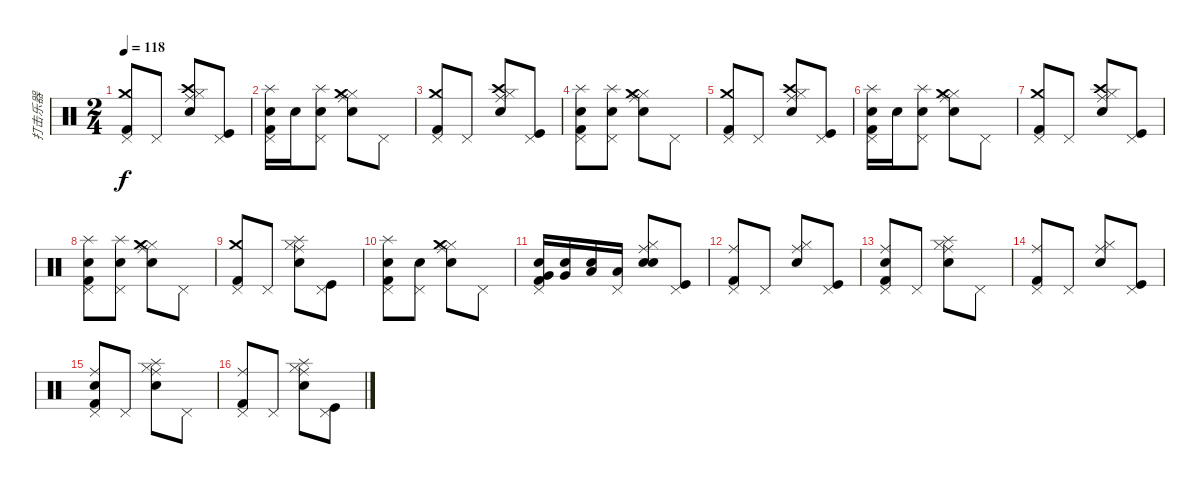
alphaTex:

\track ("打击乐器" "打击乐器") {instrument percussion}
\staff {score}
\articulation defaults
\ts (2 4)
\tempo 118
\clef neutral
\ks c
("Pedal Hi-Hat (hit)" "Crash medium (hit)" "Kick (hit) 2").8{dy f} "Pedal Hi-Hat (hit)".8 ("Ride (middle)" "Hi-Hat (closed)" "Crash high (hit)" "Snare (hit) 2").8 ("Pedal Hi-Hat (hit)" "Kick (hit)").8 |
("Snare (hit) 2" "Pedal Hi-Hat (hit)" "Splash (hit)" "Kick (hit) 2").16 "Snare (hit) 2".16 ("Snare (hit) 2" "Pedal Hi-Hat (hit)" "Splash (hit)").8 ("Ride (middle)" "Hi-Hat (closed)" "Crash medium (hit)" "Snare (hit) 2").8 "Pedal Hi-Hat (hit)".8 |
("Pedal Hi-Hat (hit)" "Crash medium (hit)" "Kick (hit) 2").8 "Pedal Hi-Hat (hit)".8 ("Ride (middle)" "Hi-Hat (closed)" "Crash high (hit)" "Snare (hit) 2").8 ("Pedal Hi-Hat (hit)" "Kick (hit)").8 |
("Snare (hit) 2" "Pedal Hi-Hat (hit)" "Splash (hit)" "Kick (hit) 2").8 ("Snare (hit) 2" "Pedal Hi-Hat (hit)" "Splash (hit)").8 ("Ride (middle)" "Hi-Hat (closed)" "Crash medium (hit)" "Snare (hit) 2").8 "Pedal Hi-Hat (hit)".8 |
("Pedal Hi-Hat (hit)" "Crash medium (hit)" "Kick (hit) 2").8 "Pedal Hi-Hat (hit)".8 ("Ride (middle)" "Hi-Hat (closed)" "Crash high (hit)" "Snare (hit) 2").8 ("Pedal Hi-Hat (hit)" "Kick (hit)").8 |
("Snare (hit) 2" "Pedal Hi-Hat (hit)" "Splash (hit)" "Kick (hit) 2").16 "Snare (hit) 2".16 ("Snare (hit) 2" "Pedal Hi-Hat (hit)" "Splash (hit)").8 ("Ride (middle)" "Hi-Hat (closed)" "Crash medium (hit)" "Snare (hit) 2").8 "Pedal Hi-Hat (hit)".8 |
("Pedal Hi-Hat (hit)" "Crash medium (hit)" "Kick (hit) 2").8 "Pedal Hi-Hat (hit)".8 ("Ride (middle)" "Hi-Hat (closed)" "Crash high (hit)" "Snare (hit) 2").8 ("Pedal Hi-Hat (hit)" "Kick (hit)").8 |
("Snare (hit) 2" "Pedal Hi-Hat (hit)" "Splash (hit)" "Kick (hit) 2").8 ("Snare (hit) 2" "Pedal Hi-Hat (hit)" "Splash (hit)").8 ("Ride (middle)" "Hi-Hat (closed)" "Crash medium (hit)" "Snare (hit) 2").8 "Pedal Hi-Hat (hit)".8 |
("Pedal Hi-Hat (hit)" "Crash medium (hit)" "Kick (hit) 2").8 "Pedal Hi-Hat (hit)".8 ("Ride (middle)" "Hi-Hat (closed)" "Splash (hit)" "Snare (hit) 2").8 ("Pedal Hi-Hat (hit)" "Kick (hit)").8 |
("Snare (hit) 2" "Pedal Hi-Hat (hit)" "Splash (hit)" "Kick (hit) 2").8 ("Snare (hit) 2" "Pedal Hi-Hat (hit)").8 ("Ride (middle)" "Hi-Hat (closed)" "Crash medium (hit)" "Snare (hit) 2").8 "Pedal Hi-Hat (hit)".8 |
("Very Low Tom (hit)" "Pedal Hi-Hat (hit)" "Electric Snare (hit)" "Kick (hit) 2").16 ("Very Low Tom (hit)" "Electric Snare (hit)").16 ("Low Floor Tom (hit)" "Electric Snare (hit)").16 ("Low Floor Tom (hit)" "Pedal Hi-Hat (hit)").16 ("Ride (middle)" "Hi-Hat (closed)" "Electric Snare (hit)" "Snare (hit) 2").8 ("Pedal Hi-Hat (hit)" "Kick (hit)").8 |
("Pedal Hi-Hat (hit)" "Ride (middle)" "Kick (hit) 2").8 "Pedal Hi-Hat (hit)".8 ("Ride (middle)" "Hi-Hat (closed)" "Snare (hit) 2").8 ("Pedal Hi-Hat (hit)" "Kick (hit)").8 |
("Snare (hit) 2" "Pedal Hi-Hat (hit)" "Ride (middle)" "Kick (hit) 2").8 "Pedal Hi-Hat (hit)".8 ("Ride (middle)" "Hi-Hat (closed)" "Splash (hit)" "Snare (hit) 2").8 "Pedal Hi-Hat (hit)".8 |
("Pedal Hi-Hat (hit)" "Ride (middle)" "Kick (hit) 2").8 "Pedal Hi-Hat (hit)".8 ("Ride (middle)" "Hi-Hat (closed)" "Snare (hit) 2").8 ("Pedal Hi-Hat (hit)" "Kick (hit)").8 |
("Snare (hit) 2" "Pedal Hi-Hat (hit)" "Ride (middle)" "Kick (hit) 2").8 "Pedal Hi-Hat (hit)".8 ("Ride (middle)" "Hi-Hat (closed)" "Splash (hit)" "Snare (hit) 2").8 "Pedal Hi-Hat (hit)".8 |
("Pedal Hi-Hat (hit)" "Ride (middle)" "Kick (hit) 2").8 "Pedal Hi-Hat (hit)".8 ("Ride (middle)" "Hi-Hat (closed)" "Splash (hit)" "Snare (hit) 2").8 ("Pedal Hi-Hat (hit)" "Kick (hit)").8
